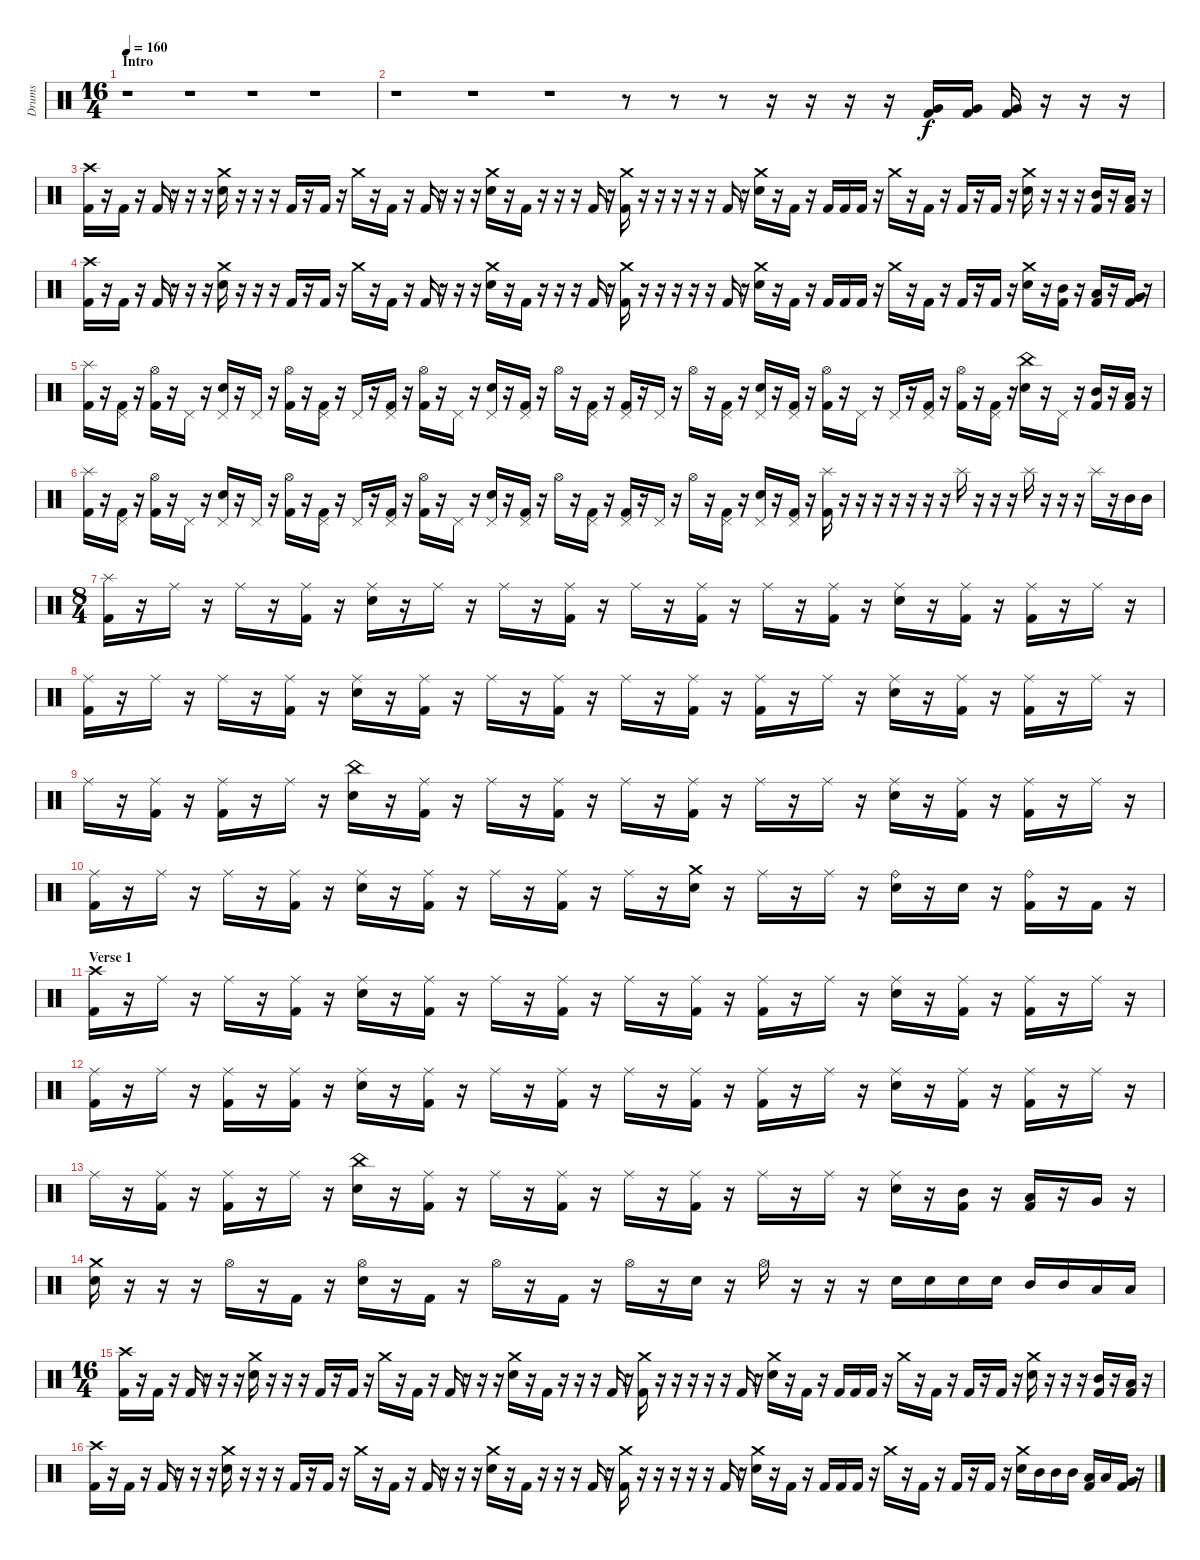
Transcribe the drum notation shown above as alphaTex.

\track ("Drums" "Drums") {instrument percussion}
\staff {score}
\articulation defaults
\ts (16 4)
\section ("" "Intro")
\tempo 160
\clef neutral
\ks c
r.1{dy f} r.1 r.1 r.1 |
r.1 r.1 r.1 r.8 r.8 r.8 r.16 r.16 r.16 r.16 ("Very Low Tom (hit)" "Kick (hit) 2").16 ("Very Low Tom (hit)" "Kick (hit) 2").16 ("Very Low Tom (hit)" "Kick (hit) 2").16 r.16 r.16 r.16 |
("Crash high (hit)" "Kick (hit) 2").16 r.16 "Kick (hit) 2".16 r.16 "Kick (hit) 2".16 r.16 r.16 r.16 ("Crash medium (hit)" "Electric Snare (hit)").16 r.16 r.16 r.16 "Kick (hit) 2".16 r.16 "Kick (hit) 2".16 r.16 "Crash medium (hit)".16 r.16 "Kick (hit) 2".16 r.16 "Kick (hit) 2".16 r.16 r.16 r.16 ("Crash medium (hit)" "Electric Snare (hit)").16 r.16 "Kick (hit) 2".16 r.16 r.16 r.16 "Kick (hit) 2".16 r.16 ("Crash medium (hit)" "Kick (hit) 2").16 r.16 r.16 r.16 r.16 r.16 "Kick (hit) 2".16 r.16 ("Crash medium (hit)" "Electric Snare (hit)").16 r.16 "Kick (hit) 2".16 r.16 "Kick (hit) 2".16 "Kick (hit) 2".16 "Kick (hit) 2".16 r.16 "Crash medium (hit)".16 r.16 "Kick (hit) 2".16 r.16 "Kick (hit) 2".16 r.16 "Kick (hit) 2".16 r.16 ("Crash medium (hit)" "Electric Snare (hit)").16 r.16 r.16 r.16 ("Mid Tom (hit)" "Kick (hit) 2").16 r.16 ("Low Tom (hit)" "Kick (hit) 2").16 r.16 |
("Crash high (hit)" "Kick (hit) 2").16 r.16 "Kick (hit) 2".16 r.16 "Kick (hit) 2".16 r.16 r.16 r.16 ("Crash medium (hit)" "Electric Snare (hit)").16 r.16 r.16 r.16 "Kick (hit) 2".16 r.16 "Kick (hit) 2".16 r.16 "Crash medium (hit)".16 r.16 "Kick (hit) 2".16 r.16 "Kick (hit) 2".16 r.16 r.16 r.16 ("Crash medium (hit)" "Electric Snare (hit)").16 r.16 "Kick (hit) 2".16 r.16 r.16 r.16 "Kick (hit) 2".16 r.16 ("Crash medium (hit)" "Kick (hit) 2").16 r.16 r.16 r.16 r.16 r.16 "Kick (hit) 2".16 r.16 ("Crash medium (hit)" "Electric Snare (hit)").16 r.16 "Kick (hit) 2".16 r.16 "Kick (hit) 2".16 "Kick (hit) 2".16 "Kick (hit) 2".16 r.16 "Crash medium (hit)".16 r.16 "Kick (hit) 2".16 r.16 "Kick (hit) 2".16 r.16 "Kick (hit) 2".16 r.16 ("Crash medium (hit)" "Electric Snare (hit)").16 r.16 ("Mid Tom (hit)" "Kick (hit) 2").16 r.16 ("Low Tom (hit)" "Kick (hit) 2").16 r.16 ("Very Low Tom (hit)" "Kick (hit) 2").16 r.16 |
("Splash (hit)" "Kick (hit) 2").16 r.16 ("Pedal Hi-Hat (hit)" "Kick (hit) 2").16 r.16 ("Hi-Hat (open)" "Kick (hit) 2").16 r.16 "Pedal Hi-Hat (hit)".16 r.16 ("Pedal Hi-Hat (hit)" "Electric Snare (hit)").16 r.16 "Pedal Hi-Hat (hit)".16 r.16 ("Hi-Hat (open)" "Kick (hit) 2").16 r.16 ("Pedal Hi-Hat (hit)" "Kick (hit) 2").16 r.16 "Pedal Hi-Hat (hit)".16 r.16 ("Pedal Hi-Hat (hit)" "Kick (hit) 2").16 r.16 ("Hi-Hat (open)" "Kick (hit) 2").16 r.16 "Pedal Hi-Hat (hit)".16 r.16 ("Pedal Hi-Hat (hit)" "Electric Snare (hit)").16 r.16 ("Pedal Hi-Hat (hit)" "Kick (hit) 2").16 r.16 "Hi-Hat (open)".16 r.16 ("Pedal Hi-Hat (hit)" "Kick (hit) 2").16 r.16 ("Pedal Hi-Hat (hit)" "Kick (hit) 2").16 r.16 "Pedal Hi-Hat (hit)".16 r.16 "Hi-Hat (open)".16 r.16 ("Pedal Hi-Hat (hit)" "Kick (hit) 2").16 r.16 ("Pedal Hi-Hat (hit)" "Electric Snare (hit)").16 r.16 ("Pedal Hi-Hat (hit)" "Kick (hit) 2").16 r.16 ("Hi-Hat (open)" "Kick (hit) 2").16 r.16 "Pedal Hi-Hat (hit)".16 r.16 "Pedal Hi-Hat (hit)".16 r.16 ("Pedal Hi-Hat (hit)" "Kick (hit) 2").16 r.16 ("Hi-Hat (open)" "Kick (hit) 2").16 r.16 ("Pedal Hi-Hat (hit)" "Kick (hit) 2").16 r.16 ("China (hit)" "Electric Snare (hit)").16 r.16 "Pedal Hi-Hat (hit)".16 r.16 ("Mid Tom (hit)" "Kick (hit) 2").16 r.16 ("Low Tom (hit)" "Kick (hit) 2").16 r.16 |
("Splash (hit)" "Kick (hit) 2").16 r.16 ("Pedal Hi-Hat (hit)" "Kick (hit) 2").16 r.16 ("Hi-Hat (open)" "Kick (hit) 2").16 r.16 "Pedal Hi-Hat (hit)".16 r.16 ("Pedal Hi-Hat (hit)" "Electric Snare (hit)").16 r.16 "Pedal Hi-Hat (hit)".16 r.16 ("Hi-Hat (open)" "Kick (hit) 2").16 r.16 ("Pedal Hi-Hat (hit)" "Kick (hit) 2").16 r.16 "Pedal Hi-Hat (hit)".16 r.16 ("Pedal Hi-Hat (hit)" "Kick (hit) 2").16 r.16 ("Hi-Hat (open)" "Kick (hit) 2").16 r.16 "Pedal Hi-Hat (hit)".16 r.16 ("Pedal Hi-Hat (hit)" "Electric Snare (hit)").16 r.16 ("Pedal Hi-Hat (hit)" "Kick (hit) 2").16 r.16 "Hi-Hat (open)".16 r.16 ("Pedal Hi-Hat (hit)" "Kick (hit) 2").16 r.16 ("Pedal Hi-Hat (hit)" "Kick (hit) 2").16 r.16 "Pedal Hi-Hat (hit)".16 r.16 "Hi-Hat (open)".16 r.16 ("Pedal Hi-Hat (hit)" "Kick (hit) 2").16 r.16 ("Pedal Hi-Hat (hit)" "Electric Snare (hit)").16 r.16 ("Pedal Hi-Hat (hit)" "Kick (hit) 2").16 r.16 ("Splash (hit)" "Kick (hit) 2").16 r.16 r.16 r.16 r.16 r.16 r.16 r.16 "Splash (hit)".16 r.16 r.16 r.16 "Splash (hit)".16 r.16 r.16 r.16 "Splash (hit)".16 r.16 "Mid Tom (hit)".16 "Mid Tom (hit)".16 |
\ts (8 4)
("Splash (hit)" "Kick (hit) 2").16 r.16 "Ride (middle)".16 r.16 "Ride (middle)".16 r.16 ("Ride (middle)" "Kick (hit) 2").16 r.16 ("Ride (middle)" "Electric Snare (hit)").16 r.16 "Ride (middle)".16 r.16 "Ride (middle)".16 r.16 ("Ride (middle)" "Kick (hit) 2").16 r.16 "Ride (middle)".16 r.16 ("Ride (middle)" "Kick (hit) 2").16 r.16 "Ride (middle)".16 r.16 ("Ride (middle)" "Kick (hit) 2").16 r.16 ("Ride (middle)" "Electric Snare (hit)").16 r.16 ("Ride (middle)" "Kick (hit) 2").16 r.16 ("Ride (middle)" "Kick (hit) 2").16 r.16 "Ride (middle)".16 r.16 |
("Ride (middle)" "Kick (hit) 2").16 r.16 "Ride (middle)".16 r.16 "Ride (middle)".16 r.16 ("Ride (middle)" "Kick (hit) 2").16 r.16 ("Ride (middle)" "Electric Snare (hit)").16 r.16 ("Ride (middle)" "Kick (hit) 2").16 r.16 "Ride (middle)".16 r.16 ("Ride (middle)" "Kick (hit) 2").16 r.16 "Ride (middle)".16 r.16 ("Ride (middle)" "Kick (hit) 2").16 r.16 ("Ride (middle)" "Kick (hit) 2").16 r.16 "Ride (middle)".16 r.16 ("Ride (middle)" "Electric Snare (hit)").16 r.16 ("Ride (middle)" "Kick (hit) 2").16 r.16 ("Ride (middle)" "Kick (hit) 2").16 r.16 "Ride (middle)".16 r.16 |
"Ride (middle)".16 r.16 ("Ride (middle)" "Kick (hit) 2").16 r.16 ("Ride (middle)" "Kick (hit) 2").16 r.16 "Ride (middle)".16 r.16 ("China (hit)" "Electric Snare (hit)").16 r.16 ("Ride (middle)" "Kick (hit) 2").16 r.16 "Ride (middle)".16 r.16 ("Ride (middle)" "Kick (hit) 2").16 r.16 "Ride (middle)".16 r.16 ("Ride (middle)" "Kick (hit) 2").16 r.16 "Ride (middle)".16 r.16 "Ride (middle)".16 r.16 ("Ride (middle)" "Electric Snare (hit)").16 r.16 ("Ride (middle)" "Kick (hit) 2").16 r.16 ("Ride (middle)" "Kick (hit) 2").16 r.16 "Ride (middle)".16 r.16 |
("Ride (middle)" "Kick (hit) 2").16 r.16 "Ride (middle)".16 r.16 "Ride (middle)".16 r.16 ("Ride (middle)" "Kick (hit) 2").16 r.16 ("Ride (middle)" "Electric Snare (hit)").16 r.16 ("Ride (middle)" "Kick (hit) 2").16 r.16 "Ride (middle)".16 r.16 ("Ride (middle)" "Kick (hit) 2").16 r.16 "Ride (middle)".16 r.16 ("Crash medium (hit)" "Electric Snare (hit)").16 r.16 "Ride (middle)".16 r.16 "Ride (middle)".16 r.16 ("Ride (bell)" "Electric Snare (hit)").16 r.16 "Electric Snare (hit)".16 r.16 ("Ride (bell)" "Kick (hit) 2").16 r.16 "Kick (hit) 2".16 r.16 |
\section ("" "Verse 1")
("Crash high (hit)" "Kick (hit) 2").16 r.16 "Ride (middle)".16 r.16 "Ride (middle)".16 r.16 ("Ride (middle)" "Kick (hit) 2").16 r.16 ("Ride (middle)" "Electric Snare (hit)").16 r.16 ("Ride (middle)" "Kick (hit) 2").16 r.16 "Ride (middle)".16 r.16 ("Ride (middle)" "Kick (hit) 2").16 r.16 "Ride (middle)".16 r.16 ("Ride (middle)" "Kick (hit) 2").16 r.16 ("Ride (middle)" "Kick (hit) 2").16 r.16 "Ride (middle)".16 r.16 ("Ride (middle)" "Electric Snare (hit)").16 r.16 ("Ride (middle)" "Kick (hit) 2").16 r.16 ("Ride (middle)" "Kick (hit) 2").16 r.16 "Ride (middle)".16 r.16 |
("Ride (middle)" "Kick (hit) 2").16 r.16 "Ride (middle)".16 r.16 ("Ride (middle)" "Kick (hit) 2").16 r.16 ("Ride (middle)" "Kick (hit) 2").16 r.16 ("Ride (middle)" "Electric Snare (hit)").16 r.16 ("Ride (middle)" "Kick (hit) 2").16 r.16 "Ride (middle)".16 r.16 ("Ride (middle)" "Kick (hit) 2").16 r.16 "Ride (middle)".16 r.16 ("Ride (middle)" "Kick (hit) 2").16 r.16 ("Ride (middle)" "Kick (hit) 2").16 r.16 "Ride (middle)".16 r.16 ("Ride (middle)" "Electric Snare (hit)").16 r.16 ("Ride (middle)" "Kick (hit) 2").16 r.16 ("Ride (middle)" "Kick (hit) 2").16 r.16 "Ride (middle)".16 r.16 |
"Ride (middle)".16 r.16 ("Ride (middle)" "Kick (hit) 2").16 r.16 ("Ride (middle)" "Kick (hit) 2").16 r.16 "Ride (middle)".16 r.16 ("China (hit)" "Electric Snare (hit)").16 r.16 ("Ride (middle)" "Kick (hit) 2").16 r.16 "Ride (middle)".16 r.16 ("Ride (middle)" "Kick (hit) 2").16 r.16 "Ride (middle)".16 r.16 ("Ride (middle)" "Kick (hit) 2").16 r.16 "Ride (middle)".16 r.16 "Ride (middle)".16 r.16 ("Ride (middle)" "Electric Snare (hit)").16 r.16 ("Mid Tom (hit)" "Kick (hit) 2").16 r.16 ("Low Tom (hit)" "Kick (hit) 2").16 r.16 "Very Low Tom (hit)".16 r.16 |
("Crash medium (hit)" "Electric Snare (hit)").16 r.16 r.16 r.16 "Hi-Hat (open)".16 r.16 "Kick (hit) 2".16 r.16 ("Hi-Hat (open)" "Electric Snare (hit)").16 r.16 "Kick (hit) 2".16 r.16 "Hi-Hat (open)".16 r.16 "Kick (hit) 2".16 r.16 "Hi-Hat (open)".16 r.16 "Electric Snare (hit)".16 r.16 "Hi-Hat (open)".16 r.16 r.16 r.16 "Electric Snare (hit)".16 "Electric Snare (hit)".16 "Electric Snare (hit)".16 "Electric Snare (hit)".16 "Mid Tom (hit)".16 "Mid Tom (hit)".16 "Low Tom (hit)".16 "Low Tom (hit)".16 |
\ts (16 4)
("Crash high (hit)" "Kick (hit) 2").16 r.16 "Kick (hit) 2".16 r.16 "Kick (hit) 2".16 r.16 r.16 r.16 ("Crash medium (hit)" "Electric Snare (hit)").16 r.16 r.16 r.16 "Kick (hit) 2".16 r.16 "Kick (hit) 2".16 r.16 "Crash medium (hit)".16 r.16 "Kick (hit) 2".16 r.16 "Kick (hit) 2".16 r.16 r.16 r.16 ("Crash medium (hit)" "Electric Snare (hit)").16 r.16 "Kick (hit) 2".16 r.16 r.16 r.16 "Kick (hit) 2".16 r.16 ("Crash medium (hit)" "Kick (hit) 2").16 r.16 r.16 r.16 r.16 r.16 "Kick (hit) 2".16 r.16 ("Crash medium (hit)" "Electric Snare (hit)").16 r.16 "Kick (hit) 2".16 r.16 "Kick (hit) 2".16 "Kick (hit) 2".16 "Kick (hit) 2".16 r.16 "Crash medium (hit)".16 r.16 "Kick (hit) 2".16 r.16 "Kick (hit) 2".16 r.16 "Kick (hit) 2".16 r.16 ("Crash medium (hit)" "Electric Snare (hit)").16 r.16 r.16 r.16 ("Mid Tom (hit)" "Kick (hit) 2").16 r.16 ("Low Tom (hit)" "Kick (hit) 2").16 r.16 |
("Crash high (hit)" "Kick (hit) 2").16 r.16 "Kick (hit) 2".16 r.16 "Kick (hit) 2".16 r.16 r.16 r.16 ("Crash medium (hit)" "Electric Snare (hit)").16 r.16 r.16 r.16 "Kick (hit) 2".16 r.16 "Kick (hit) 2".16 r.16 "Crash medium (hit)".16 r.16 "Kick (hit) 2".16 r.16 "Kick (hit) 2".16 r.16 r.16 r.16 ("Crash medium (hit)" "Electric Snare (hit)").16 r.16 "Kick (hit) 2".16 r.16 r.16 r.16 "Kick (hit) 2".16 r.16 ("Crash medium (hit)" "Kick (hit) 2").16 r.16 r.16 r.16 r.16 r.16 "Kick (hit) 2".16 r.16 ("Crash medium (hit)" "Electric Snare (hit)").16 r.16 "Kick (hit) 2".16 r.16 "Kick (hit) 2".16 "Kick (hit) 2".16 "Kick (hit) 2".16 r.16 "Crash medium (hit)".16 r.16 "Kick (hit) 2".16 r.16 "Kick (hit) 2".16 r.16 "Kick (hit) 2".16 r.16 ("Crash medium (hit)" "Electric Snare (hit)").16 "Mid Tom (hit)".16 "Mid Tom (hit)".16 "Mid Tom (hit)".16 ("Low Tom (hit)" "Kick (hit) 2").16 "Low Tom (hit)".16 ("Very Low Tom (hit)" "Kick (hit) 2").16 r.16
